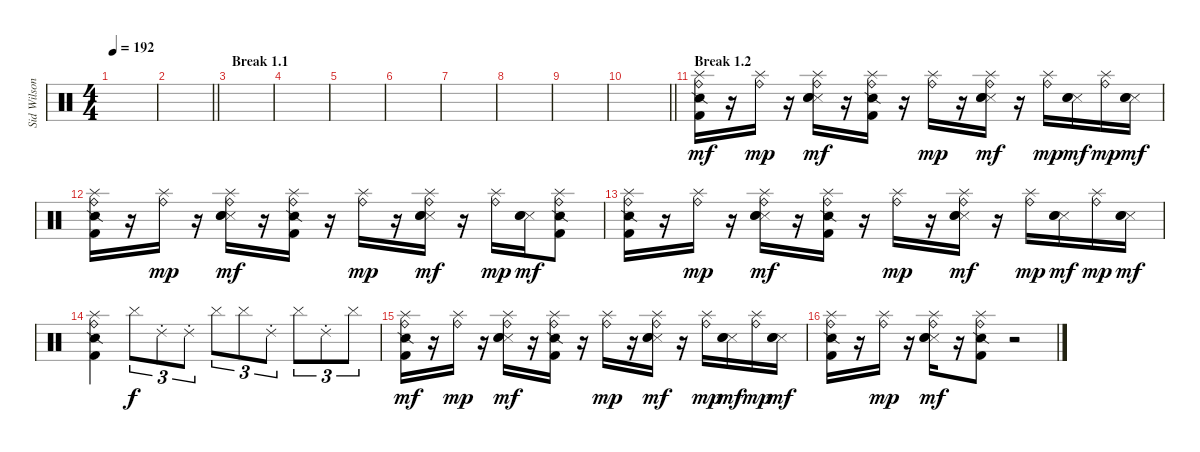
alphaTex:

\track ("Sid Wilson" "Sid Wilson") {instrument percussion}
\staff {score}
\articulation defaults
\ts (4 4)
\tempo 192
\clef neutral
\ks c
|
\barLineRight lightlight
|
\section ("" "Break 1.1")
|
|
|
|
|
|
|
\barLineRight lightlight
|
\section ("" "Break 1.2")
("Splash (hit)" "Ride (bell)" "Snare (side stick) 2" "Kick (hit) 2").16{dy mf} r.16 ("Splash (hit)" "Ride (bell)").16{dy mp} r.16 ("Splash (hit)" "Ride (bell)" "Snare (side stick) 3" "Electric Snare (hit)" "Hand Clap (hit)").16{dy mf} r.16 ("Splash (hit)" "Ride (bell)" "Snare (side stick) 2" "Kick (hit) 2").16 r.16 ("Splash (hit)" "Ride (bell)").16{dy mp} r.16 ("Splash (hit)" "Ride (bell)" "Snare (side stick) 3" "Electric Snare (hit)" "Hand Clap (hit)").16{dy mf} r.16 ("Splash (hit)" "Ride (bell)").16{dy mp} ("Snare (side stick) 3" "Electric Snare (hit)" "Hand Clap (hit)").16{dy mf} ("Splash (hit)" "Ride (bell)").16{dy mp} ("Snare (side stick) 3" "Electric Snare (hit)" "Hand Clap (hit)").16{dy mf} |
("Splash (hit)" "Ride (bell)" "Snare (side stick) 2" "Kick (hit) 2").16 r.16 ("Splash (hit)" "Ride (bell)").16{dy mp} r.16 ("Splash (hit)" "Ride (bell)" "Snare (side stick) 3" "Electric Snare (hit)" "Hand Clap (hit)").16{dy mf} r.16 ("Splash (hit)" "Ride (bell)" "Snare (side stick) 2" "Kick (hit) 2").16 r.16 ("Splash (hit)" "Ride (bell)").16{dy mp} r.16 ("Splash (hit)" "Ride (bell)" "Snare (side stick) 3" "Electric Snare (hit)" "Hand Clap (hit)").16{dy mf} r.16 ("Splash (hit)" "Ride (bell)").16{dy mp} ("Snare (side stick) 3" "Electric Snare (hit)" "Hand Clap (hit)").16{dy mf} ("Splash (hit)" "Ride (bell)" "Snare (side stick) 2" "Kick (hit) 2").8 |
("Splash (hit)" "Ride (bell)" "Snare (side stick) 2" "Kick (hit) 2").16 r.16 ("Splash (hit)" "Ride (bell)").16{dy mp} r.16 ("Splash (hit)" "Ride (bell)" "Snare (side stick) 3" "Electric Snare (hit)" "Hand Clap (hit)").16{dy mf} r.16 ("Splash (hit)" "Ride (bell)" "Snare (side stick) 2" "Kick (hit) 2").16 r.16 ("Splash (hit)" "Ride (bell)").16{dy mp} r.16 ("Splash (hit)" "Ride (bell)" "Snare (side stick) 3" "Electric Snare (hit)" "Hand Clap (hit)").16{dy mf} r.16 ("Splash (hit)" "Ride (bell)").16{dy mp} ("Snare (side stick) 3" "Electric Snare (hit)" "Hand Clap (hit)").16{dy mf} ("Splash (hit)" "Ride (bell)").16{dy mp} ("Snare (side stick) 3" "Electric Snare (hit)" "Hand Clap (hit)").16{dy mf} |
("Splash (hit)" "Ride (bell)" "Snare (side stick) 2" "Kick (hit) 2").4 "Cymbal (hit)".8{tu (3 2) dy f} "Ride (choke) 2".8{tu (3 2)} "Ride (choke) 2".8{tu (3 2)} "Cymbal (hit)".8{tu (3 2)} "Cymbal (hit)".8{tu (3 2)} "Ride (choke) 2".8{tu (3 2)} "Cymbal (hit)".8{tu (3 2)} "Ride (choke) 2".8{tu (3 2)} "Cymbal (hit)".8{tu (3 2)} |
("Splash (hit)" "Ride (bell)" "Snare (side stick) 2" "Kick (hit) 2").16{dy mf} r.16 ("Splash (hit)" "Ride (bell)").16{dy mp} r.16 ("Splash (hit)" "Ride (bell)" "Snare (side stick) 3" "Electric Snare (hit)" "Hand Clap (hit)").16{dy mf} r.16 ("Splash (hit)" "Ride (bell)" "Snare (side stick) 2" "Kick (hit) 2").16 r.16 ("Splash (hit)" "Ride (bell)").16{dy mp} r.16 ("Splash (hit)" "Ride (bell)" "Snare (side stick) 3" "Electric Snare (hit)" "Hand Clap (hit)").16{dy mf} r.16 ("Splash (hit)" "Ride (bell)").16{dy mp} ("Snare (side stick) 3" "Electric Snare (hit)" "Hand Clap (hit)").16{dy mf} ("Splash (hit)" "Ride (bell)").16{dy mp} ("Snare (side stick) 3" "Electric Snare (hit)" "Hand Clap (hit)").16{dy mf} |
("Splash (hit)" "Ride (bell)" "Snare (side stick) 2" "Kick (hit) 2").16 r.16 ("Splash (hit)" "Ride (bell)").16{dy mp} r.16 ("Splash (hit)" "Ride (bell)" "Snare (side stick) 3" "Electric Snare (hit)" "Hand Clap (hit)").16{dy mf} r.16 ("Splash (hit)" "Ride (bell)" "Snare (side stick) 2" "Kick (hit) 2").8 r.2
